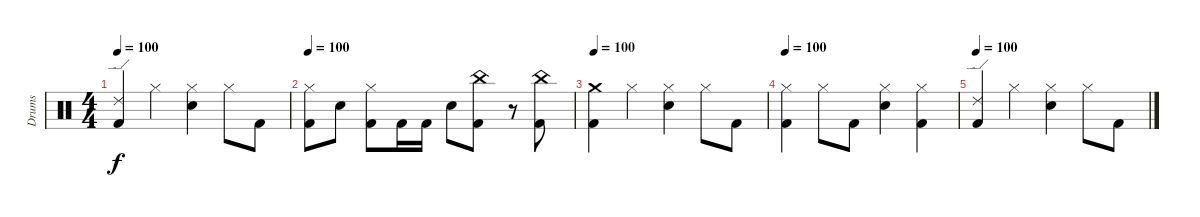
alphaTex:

\track ("Drums" "Drums") {instrument percussion}
\staff {score}
\articulation defaults
\ts (4 4)
\tempo 100
\clef neutral
\ks c
("Kick (hit) 2" "Ride (edge) 2").4{dy f volume 12} "Hi-Hat (closed)".4 ("Hi-Hat (closed)" "Snare (hit) 2").4 "Hi-Hat (closed)".8 "Kick (hit) 2".8 |
\tempo 100
("Hi-Hat (closed)" "Kick (hit) 2").8{volume 9} "Snare (hit) 2".8 ("Kick (hit) 2" "Hi-Hat (closed)").8 "Kick (hit) 2".16 "Kick (hit) 2".16 "Snare (hit) 2".8 ("Kick (hit) 2" "China (hit)").8 r.8 ("China (hit)" "Kick (hit) 2").8 |
\tempo 100
("Kick (hit) 2" "Crash medium (hit)").4{volume 6} "Hi-Hat (closed)".4 ("Snare (hit) 2" "Hi-Hat (closed)").4 "Hi-Hat (closed)".8 "Kick (hit) 2".8 |
\tempo 100
("Hi-Hat (closed)" "Kick (hit) 2").4{volume 3} "Hi-Hat (closed)".8 "Kick (hit) 2".8 ("Snare (hit) 2" "Hi-Hat (closed)").4 ("Kick (hit) 2" "Hi-Hat (closed)").4 |
\tempo 100
("Kick (hit) 2" "Ride (edge) 2").4{volume 1} "Hi-Hat (closed)".4 ("Hi-Hat (closed)" "Snare (hit) 2").4 "Hi-Hat (closed)".8 "Kick (hit) 2".8
